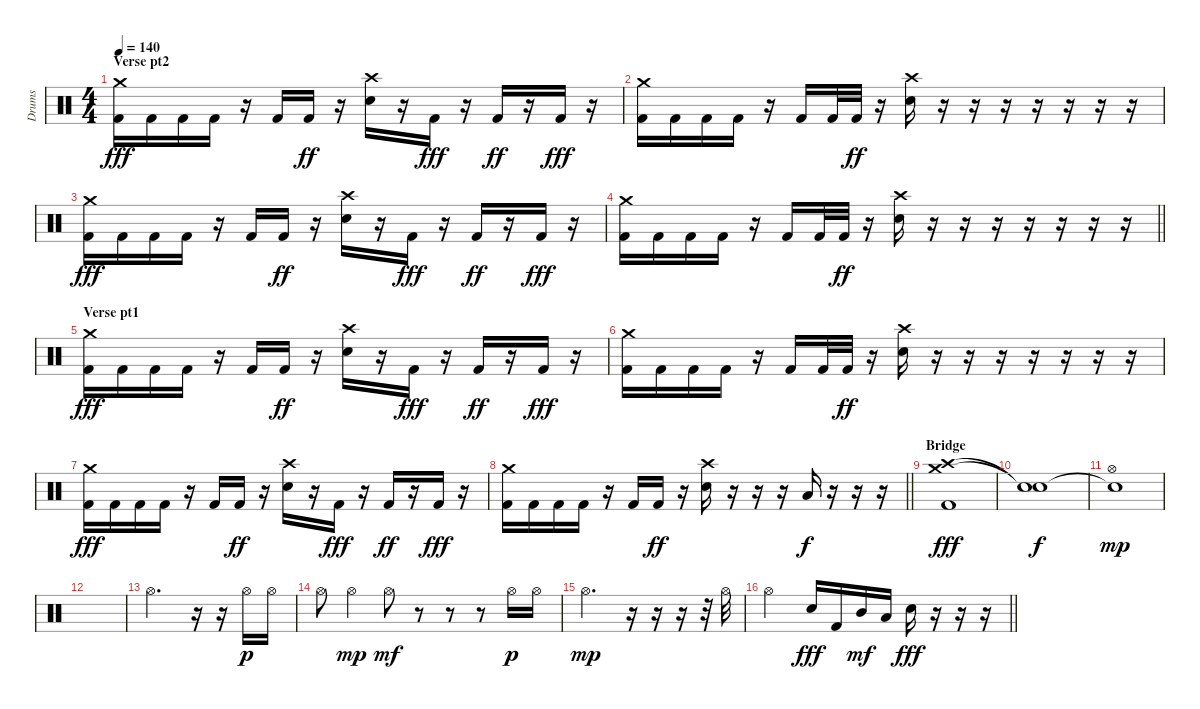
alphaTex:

\track ("Drums" "Drums") {instrument percussion}
\staff {score}
\articulation defaults
\ts (4 4)
\section ("" "Verse pt2")
\tempo 140
\clef neutral
\ks c
("Crash medium (hit)" "Kick (hit) 2").16{dy fff} "Kick (hit) 2".16 "Kick (hit) 2".16 "Kick (hit) 2".16 r.16 "Kick (hit) 2".16 "Kick (hit) 2".16{dy ff} r.16 ("Crash high (hit)" "Electric Snare (hit)").16 r.16 "Kick (hit) 2".16{dy fff} r.16 "Kick (hit) 2".16{dy ff} r.16 "Kick (hit) 2".16{dy fff} r.16 |
("Crash medium (hit)" "Kick (hit) 2").16 "Kick (hit) 2".16 "Kick (hit) 2".16 "Kick (hit) 2".16 r.16 "Kick (hit) 2".16 "Kick (hit) 2".32 "Kick (hit) 2".32{dy ff} r.16 ("Crash high (hit)" "Electric Snare (hit)").16 r.16 r.16 r.16 r.16 r.16 r.16 r.16 |
("Crash medium (hit)" "Kick (hit) 2").16{dy fff} "Kick (hit) 2".16 "Kick (hit) 2".16 "Kick (hit) 2".16 r.16 "Kick (hit) 2".16 "Kick (hit) 2".16{dy ff} r.16 ("Crash high (hit)" "Electric Snare (hit)").16 r.16 "Kick (hit) 2".16{dy fff} r.16 "Kick (hit) 2".16{dy ff} r.16 "Kick (hit) 2".16{dy fff} r.16 |
\barLineRight lightlight
("Crash medium (hit)" "Kick (hit) 2").16 "Kick (hit) 2".16 "Kick (hit) 2".16 "Kick (hit) 2".16 r.16 "Kick (hit) 2".16 "Kick (hit) 2".32 "Kick (hit) 2".32{dy ff} r.16 ("Crash high (hit)" "Electric Snare (hit)").16 r.16 r.16 r.16 r.16 r.16 r.16 r.16 |
\section ("" "Verse pt1")
("Crash medium (hit)" "Kick (hit) 2").16{dy fff} "Kick (hit) 2".16 "Kick (hit) 2".16 "Kick (hit) 2".16 r.16 "Kick (hit) 2".16 "Kick (hit) 2".16{dy ff} r.16 ("Crash high (hit)" "Electric Snare (hit)").16 r.16 "Kick (hit) 2".16{dy fff} r.16 "Kick (hit) 2".16{dy ff} r.16 "Kick (hit) 2".16{dy fff} r.16 |
("Crash medium (hit)" "Kick (hit) 2").16 "Kick (hit) 2".16 "Kick (hit) 2".16 "Kick (hit) 2".16 r.16 "Kick (hit) 2".16 "Kick (hit) 2".32 "Kick (hit) 2".32{dy ff} r.16 ("Crash high (hit)" "Electric Snare (hit)").16 r.16 r.16 r.16 r.16 r.16 r.16 r.16 |
("Crash medium (hit)" "Kick (hit) 2").16{dy fff} "Kick (hit) 2".16 "Kick (hit) 2".16 "Kick (hit) 2".16 r.16 "Kick (hit) 2".16 "Kick (hit) 2".16{dy ff} r.16 ("Crash high (hit)" "Electric Snare (hit)").16 r.16 "Kick (hit) 2".16{dy fff} r.16 "Kick (hit) 2".16{dy ff} r.16 "Kick (hit) 2".16{dy fff} r.16 |
\barLineRight lightlight
("Crash medium (hit)" "Kick (hit) 2").16 "Kick (hit) 2".16 "Kick (hit) 2".16 "Kick (hit) 2".16 r.16 "Kick (hit) 2".16 "Kick (hit) 2".16{dy ff} r.16 ("Crash high (hit)" "Electric Snare (hit)").16 r.16 r.16 r.16 "Low Tom (hit)".16{dy f} r.16 r.16 r.16 |
\section ("" "Bridge")
("Crash medium (hit)" "Crash high (hit)" "Kick (hit) 2").1{dy fff} |
("Snare (hit)"{t} "Snare (hit)"{t}).1{dy f} |
("Hi-Hat (open)" "Snare (hit)"{t}).1{dy mp} |
|
"Hi-Hat (open)".2{d} r.16 r.16 "Hi-Hat (open)".16{dy p} "Hi-Hat (open)".16 |
"Hi-Hat (open)".8 "Hi-Hat (open)".4{dy mp} "Hi-Hat (open)".8{dy mf} r.8 r.8 r.8 "Hi-Hat (open)".16{dy p} "Hi-Hat (open)".16 |
"Hi-Hat (open)".2{d dy mp} r.16 r.16 r.16 r.32 "Hi-Hat (open)".32 |
\barLineRight lightlight "Hi-Hat (open)".2 "Electric Snare (hit)".16{dy fff} "Kick (hit) 2".16 "Mid Tom (hit)".16{dy mf} "Low Tom (hit)".16 "Electric Snare (hit)".16{dy fff}
r.16 r.16 r.16
